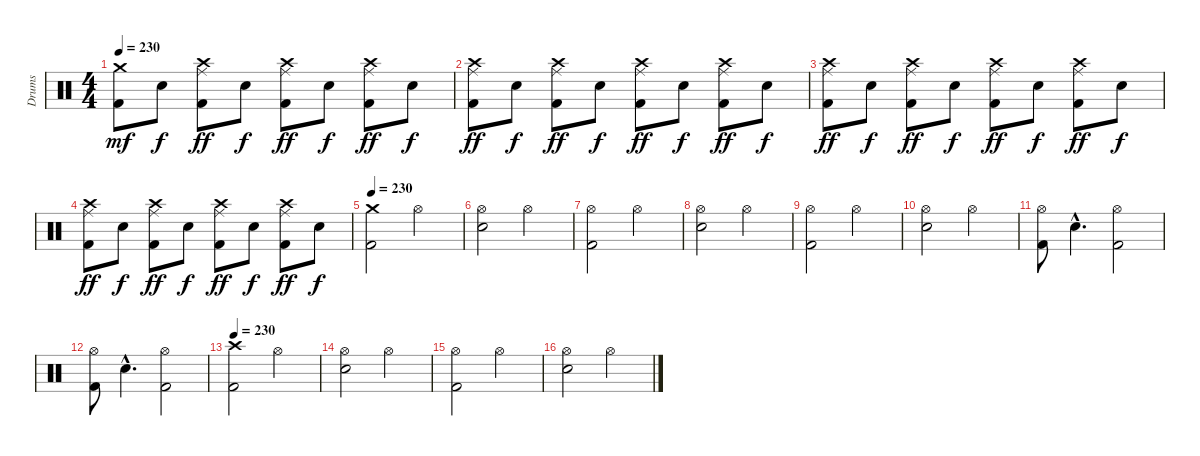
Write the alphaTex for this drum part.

\track ("Drums" "Drums") {instrument percussion}
\staff {score}
\articulation defaults
\ts (4 4)
\tempo 230
\clef neutral
\ks c
("Crash medium (hit)" "Kick (hit) 2").8{dy mf} "Snare (hit) 2".8{dy f} ("Crash high (hit)" "Ride (middle)" "Kick (hit) 2").8{dy ff} "Snare (hit) 2".8{dy f} ("Crash high (hit)" "Ride (middle)" "Kick (hit) 2").8{dy ff} "Snare (hit) 2".8{dy f} ("Crash high (hit)" "Ride (middle)" "Kick (hit) 2").8{dy ff} "Snare (hit) 2".8{dy f} |
("Crash high (hit)" "Ride (middle)" "Kick (hit) 2").8{dy ff} "Snare (hit) 2".8{dy f} ("Crash high (hit)" "Ride (middle)" "Kick (hit) 2").8{dy ff} "Snare (hit) 2".8{dy f} ("Crash high (hit)" "Ride (middle)" "Kick (hit) 2").8{dy ff} "Snare (hit) 2".8{dy f} ("Crash high (hit)" "Ride (middle)" "Kick (hit) 2").8{dy ff} "Snare (hit) 2".8{dy f} |
("Crash high (hit)" "Ride (middle)" "Kick (hit) 2").8{dy ff} "Snare (hit) 2".8{dy f} ("Crash high (hit)" "Ride (middle)" "Kick (hit) 2").8{dy ff} "Snare (hit) 2".8{dy f} ("Crash high (hit)" "Ride (middle)" "Kick (hit) 2").8{dy ff} "Snare (hit) 2".8{dy f} ("Crash high (hit)" "Ride (middle)" "Kick (hit) 2").8{dy ff} "Snare (hit) 2".8{dy f} |
("Crash high (hit)" "Ride (middle)" "Kick (hit) 2").8{dy ff} "Snare (hit) 2".8{dy f} ("Crash high (hit)" "Ride (middle)" "Kick (hit) 2").8{dy ff} "Snare (hit) 2".8{dy f} ("Crash high (hit)" "Ride (middle)" "Kick (hit) 2").8{dy ff} "Snare (hit) 2".8{dy f} ("Crash high (hit)" "Ride (middle)" "Kick (hit) 2").8{dy ff} "Snare (hit) 2".8{dy f} |
\tempo 230
("Crash medium (hit)" "Kick (hit) 2").2 "Hi-Hat (open)".2 |
("Hi-Hat (open)" "Snare (hit) 2").2 "Hi-Hat (open)".2 |
("Hi-Hat (open)" "Kick (hit) 2").2 "Hi-Hat (open)".2 |
("Hi-Hat (open)" "Snare (hit) 2").2 "Hi-Hat (open)".2 |
("Hi-Hat (open)" "Kick (hit) 2").2 "Hi-Hat (open)".2 |
("Hi-Hat (open)" "Snare (hit) 2").2 "Hi-Hat (open)".2 |
("Hi-Hat (open)" "Kick (hit) 2").8 "Snare (hit) 2"{hac}.4{d} ("Hi-Hat (open)" "Kick (hit) 2").2 |
("Hi-Hat (open)" "Kick (hit) 2").8 "Snare (hit) 2"{hac}.4{d} ("Hi-Hat (open)" "Kick (hit) 2").2 |
\tempo 230
("Crash high (hit)" "Kick (hit) 2").2 "Hi-Hat (open)".2 |
("Hi-Hat (open)" "Snare (hit) 2").2 "Hi-Hat (open)".2 |
("Hi-Hat (open)" "Kick (hit) 2").2 "Hi-Hat (open)".2 |
("Hi-Hat (open)" "Snare (hit) 2").2 "Hi-Hat (open)".2
